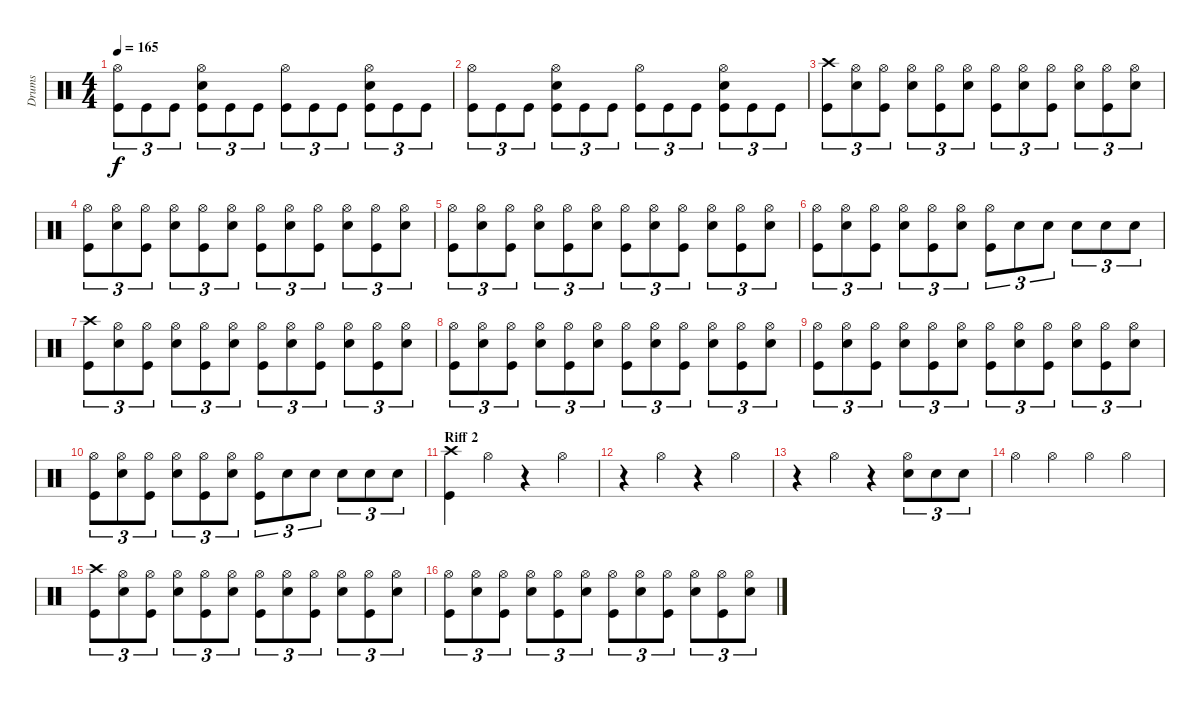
\track ("Drums" "Drums") {instrument percussion}
\staff {score}
\articulation defaults
\ts (4 4)
\tempo 165
\clef neutral
\ks c
("Hi-Hat (open)" "Kick (hit)").8{tu (3 2) dy f} "Kick (hit)".8{tu (3 2)} "Kick (hit)".8{tu (3 2)} ("Hi-Hat (open)" "Electric Snare (hit)" "Kick (hit)").8{tu (3 2)} "Kick (hit)".8{tu (3 2)} "Kick (hit)".8{tu (3 2)} ("Hi-Hat (open)" "Kick (hit)").8{tu (3 2)} "Kick (hit)".8{tu (3 2)} "Kick (hit)".8{tu (3 2)} ("Hi-Hat (open)" "Electric Snare (hit)" "Kick (hit)").8{tu (3 2)} "Kick (hit)".8{tu (3 2)} "Kick (hit)".8{tu (3 2)} |
("Hi-Hat (open)" "Kick (hit)").8{tu (3 2)} "Kick (hit)".8{tu (3 2)} "Kick (hit)".8{tu (3 2)} ("Hi-Hat (open)" "Electric Snare (hit)" "Kick (hit)").8{tu (3 2)} "Kick (hit)".8{tu (3 2)} "Kick (hit)".8{tu (3 2)} ("Hi-Hat (open)" "Kick (hit)").8{tu (3 2)} "Kick (hit)".8{tu (3 2)} "Kick (hit)".8{tu (3 2)} ("Hi-Hat (open)" "Electric Snare (hit)" "Kick (hit)").8{tu (3 2)} "Kick (hit)".8{tu (3 2)} "Kick (hit)".8{tu (3 2)} |
("Crash high (hit)" "Kick (hit)").8{tu (3 2)} ("Hi-Hat (open)" "Electric Snare (hit)").8{tu (3 2)} ("Hi-Hat (open)" "Kick (hit)").8{tu (3 2)} ("Hi-Hat (open)" "Electric Snare (hit)").8{tu (3 2)} ("Hi-Hat (open)" "Kick (hit)").8{tu (3 2)} ("Hi-Hat (open)" "Electric Snare (hit)").8{tu (3 2)} ("Hi-Hat (open)" "Kick (hit)").8{tu (3 2)} ("Hi-Hat (open)" "Electric Snare (hit)").8{tu (3 2)} ("Hi-Hat (open)" "Kick (hit)").8{tu (3 2)} ("Hi-Hat (open)" "Electric Snare (hit)").8{tu (3 2)} ("Hi-Hat (open)" "Kick (hit)").8{tu (3 2)} ("Hi-Hat (open)" "Electric Snare (hit)").8{tu (3 2)} |
("Hi-Hat (open)" "Kick (hit)").8{tu (3 2)} ("Hi-Hat (open)" "Electric Snare (hit)").8{tu (3 2)} ("Hi-Hat (open)" "Kick (hit)").8{tu (3 2)} ("Hi-Hat (open)" "Electric Snare (hit)").8{tu (3 2)} ("Hi-Hat (open)" "Kick (hit)").8{tu (3 2)} ("Hi-Hat (open)" "Electric Snare (hit)").8{tu (3 2)} ("Hi-Hat (open)" "Kick (hit)").8{tu (3 2)} ("Hi-Hat (open)" "Electric Snare (hit)").8{tu (3 2)} ("Hi-Hat (open)" "Kick (hit)").8{tu (3 2)} ("Hi-Hat (open)" "Electric Snare (hit)").8{tu (3 2)} ("Hi-Hat (open)" "Kick (hit)").8{tu (3 2)} ("Hi-Hat (open)" "Electric Snare (hit)").8{tu (3 2)} |
("Hi-Hat (open)" "Kick (hit)").8{tu (3 2)} ("Hi-Hat (open)" "Electric Snare (hit)").8{tu (3 2)} ("Hi-Hat (open)" "Kick (hit)").8{tu (3 2)} ("Hi-Hat (open)" "Electric Snare (hit)").8{tu (3 2)} ("Hi-Hat (open)" "Kick (hit)").8{tu (3 2)} ("Hi-Hat (open)" "Electric Snare (hit)").8{tu (3 2)} ("Hi-Hat (open)" "Kick (hit)").8{tu (3 2)} ("Hi-Hat (open)" "Electric Snare (hit)").8{tu (3 2)} ("Hi-Hat (open)" "Kick (hit)").8{tu (3 2)} ("Hi-Hat (open)" "Electric Snare (hit)").8{tu (3 2)} ("Hi-Hat (open)" "Kick (hit)").8{tu (3 2)} ("Hi-Hat (open)" "Electric Snare (hit)").8{tu (3 2)} |
("Hi-Hat (open)" "Kick (hit)").8{tu (3 2)} ("Hi-Hat (open)" "Electric Snare (hit)").8{tu (3 2)} ("Hi-Hat (open)" "Kick (hit)").8{tu (3 2)} ("Hi-Hat (open)" "Electric Snare (hit)").8{tu (3 2)} ("Hi-Hat (open)" "Kick (hit)").8{tu (3 2)} ("Hi-Hat (open)" "Electric Snare (hit)").8{tu (3 2)} ("Hi-Hat (open)" "Kick (hit)").8{tu (3 2)} "Electric Snare (hit)".8{tu (3 2)} "Electric Snare (hit)".8{tu (3 2)} "Electric Snare (hit)".8{tu (3 2)} "Electric Snare (hit)".8{tu (3 2)} "Electric Snare (hit)".8{tu (3 2)} |
("Crash high (hit)" "Kick (hit)").8{tu (3 2)} ("Hi-Hat (open)" "Electric Snare (hit)").8{tu (3 2)} ("Hi-Hat (open)" "Kick (hit)").8{tu (3 2)} ("Hi-Hat (open)" "Electric Snare (hit)").8{tu (3 2)} ("Hi-Hat (open)" "Kick (hit)").8{tu (3 2)} ("Hi-Hat (open)" "Electric Snare (hit)").8{tu (3 2)} ("Hi-Hat (open)" "Kick (hit)").8{tu (3 2)} ("Hi-Hat (open)" "Electric Snare (hit)").8{tu (3 2)} ("Hi-Hat (open)" "Kick (hit)").8{tu (3 2)} ("Hi-Hat (open)" "Electric Snare (hit)").8{tu (3 2)} ("Hi-Hat (open)" "Kick (hit)").8{tu (3 2)} ("Hi-Hat (open)" "Electric Snare (hit)").8{tu (3 2)} |
("Hi-Hat (open)" "Kick (hit)").8{tu (3 2)} ("Hi-Hat (open)" "Electric Snare (hit)").8{tu (3 2)} ("Hi-Hat (open)" "Kick (hit)").8{tu (3 2)} ("Hi-Hat (open)" "Electric Snare (hit)").8{tu (3 2)} ("Hi-Hat (open)" "Kick (hit)").8{tu (3 2)} ("Hi-Hat (open)" "Electric Snare (hit)").8{tu (3 2)} ("Hi-Hat (open)" "Kick (hit)").8{tu (3 2)} ("Hi-Hat (open)" "Electric Snare (hit)").8{tu (3 2)} ("Hi-Hat (open)" "Kick (hit)").8{tu (3 2)} ("Hi-Hat (open)" "Electric Snare (hit)").8{tu (3 2)} ("Hi-Hat (open)" "Kick (hit)").8{tu (3 2)} ("Hi-Hat (open)" "Electric Snare (hit)").8{tu (3 2)} |
("Hi-Hat (open)" "Kick (hit)").8{tu (3 2)} ("Hi-Hat (open)" "Electric Snare (hit)").8{tu (3 2)} ("Hi-Hat (open)" "Kick (hit)").8{tu (3 2)} ("Hi-Hat (open)" "Electric Snare (hit)").8{tu (3 2)} ("Hi-Hat (open)" "Kick (hit)").8{tu (3 2)} ("Hi-Hat (open)" "Electric Snare (hit)").8{tu (3 2)} ("Hi-Hat (open)" "Kick (hit)").8{tu (3 2)} ("Hi-Hat (open)" "Electric Snare (hit)").8{tu (3 2)} ("Hi-Hat (open)" "Kick (hit)").8{tu (3 2)} ("Hi-Hat (open)" "Electric Snare (hit)").8{tu (3 2)} ("Hi-Hat (open)" "Kick (hit)").8{tu (3 2)} ("Hi-Hat (open)" "Electric Snare (hit)").8{tu (3 2)} |
("Hi-Hat (open)" "Kick (hit)").8{tu (3 2)} ("Hi-Hat (open)" "Electric Snare (hit)").8{tu (3 2)} ("Hi-Hat (open)" "Kick (hit)").8{tu (3 2)} ("Hi-Hat (open)" "Electric Snare (hit)").8{tu (3 2)} ("Hi-Hat (open)" "Kick (hit)").8{tu (3 2)} ("Hi-Hat (open)" "Electric Snare (hit)").8{tu (3 2)} ("Hi-Hat (open)" "Kick (hit)").8{tu (3 2)} "Electric Snare (hit)".8{tu (3 2)} "Electric Snare (hit)".8{tu (3 2)} "Electric Snare (hit)".8{tu (3 2)} "Electric Snare (hit)".8{tu (3 2)} "Electric Snare (hit)".8{tu (3 2)} |
\section ("" "Riff 2")
("Crash high (hit)" "Kick (hit)").4 "Hi-Hat (open)".4 r.4 "Hi-Hat (open)".4 |
r.4 "Hi-Hat (open)".4 r.4 "Hi-Hat (open)".4 |
r.4 "Hi-Hat (open)".4 r.4 ("Hi-Hat (open)" "Electric Snare (hit)").8{tu (3 2)} "Electric Snare (hit)".8{tu (3 2)} "Electric Snare (hit)".8{tu (3 2)} |
"Hi-Hat (open)".4 "Hi-Hat (open)".4 "Hi-Hat (open)".4 "Hi-Hat (open)".4 |
("Crash high (hit)" "Kick (hit)").8{tu (3 2)} ("Hi-Hat (open)" "Electric Snare (hit)").8{tu (3 2)} ("Hi-Hat (open)" "Kick (hit)").8{tu (3 2)} ("Hi-Hat (open)" "Electric Snare (hit)").8{tu (3 2)} ("Hi-Hat (open)" "Kick (hit)").8{tu (3 2)} ("Hi-Hat (open)" "Electric Snare (hit)").8{tu (3 2)} ("Hi-Hat (open)" "Kick (hit)").8{tu (3 2)} ("Hi-Hat (open)" "Electric Snare (hit)").8{tu (3 2)} ("Hi-Hat (open)" "Kick (hit)").8{tu (3 2)} ("Hi-Hat (open)" "Electric Snare (hit)").8{tu (3 2)} ("Hi-Hat (open)" "Kick (hit)").8{tu (3 2)} ("Hi-Hat (open)" "Electric Snare (hit)").8{tu (3 2)} |
("Hi-Hat (open)" "Kick (hit)").8{tu (3 2)} ("Hi-Hat (open)" "Electric Snare (hit)").8{tu (3 2)} ("Hi-Hat (open)" "Kick (hit)").8{tu (3 2)} ("Hi-Hat (open)" "Electric Snare (hit)").8{tu (3 2)} ("Hi-Hat (open)" "Kick (hit)").8{tu (3 2)} ("Hi-Hat (open)" "Electric Snare (hit)").8{tu (3 2)} ("Hi-Hat (open)" "Kick (hit)").8{tu (3 2)} ("Hi-Hat (open)" "Electric Snare (hit)").8{tu (3 2)} ("Hi-Hat (open)" "Kick (hit)").8{tu (3 2)} ("Hi-Hat (open)" "Electric Snare (hit)").8{tu (3 2)} ("Hi-Hat (open)" "Kick (hit)").8{tu (3 2)} ("Hi-Hat (open)" "Electric Snare (hit)").8{tu (3 2)}
